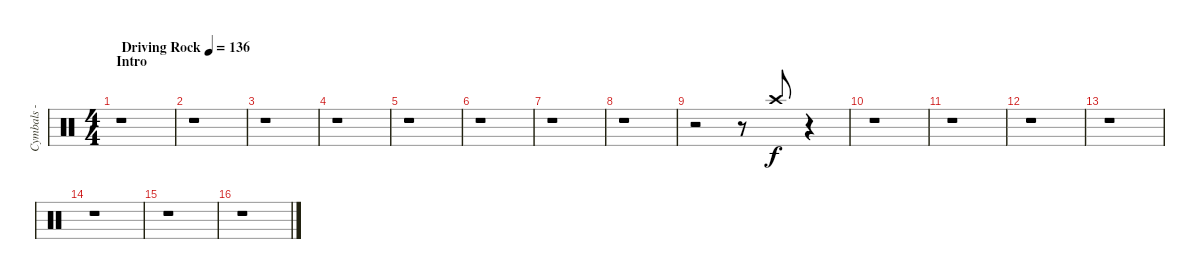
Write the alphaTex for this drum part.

\track ("Cymbals - crash - right" "Cymbals - ") {instrument percussion}
\staff {score}
\articulation defaults
\ts (4 4)
\section ("" "Intro")
\tempo (136 "Driving Rock")
\clef neutral
\ks c
r.1{dy f balance 13} |
r.1 |
r.1 |
r.1 |
r.1 |
r.1 |
r.1 |
r.1 |
r.2 r.8 "Crash high (hit)".8{volume 0 beam Up} r.4 |
r.1 |
r.1 |
r.1 |
r.1 |
r.1 |
r.1 |
r.1
